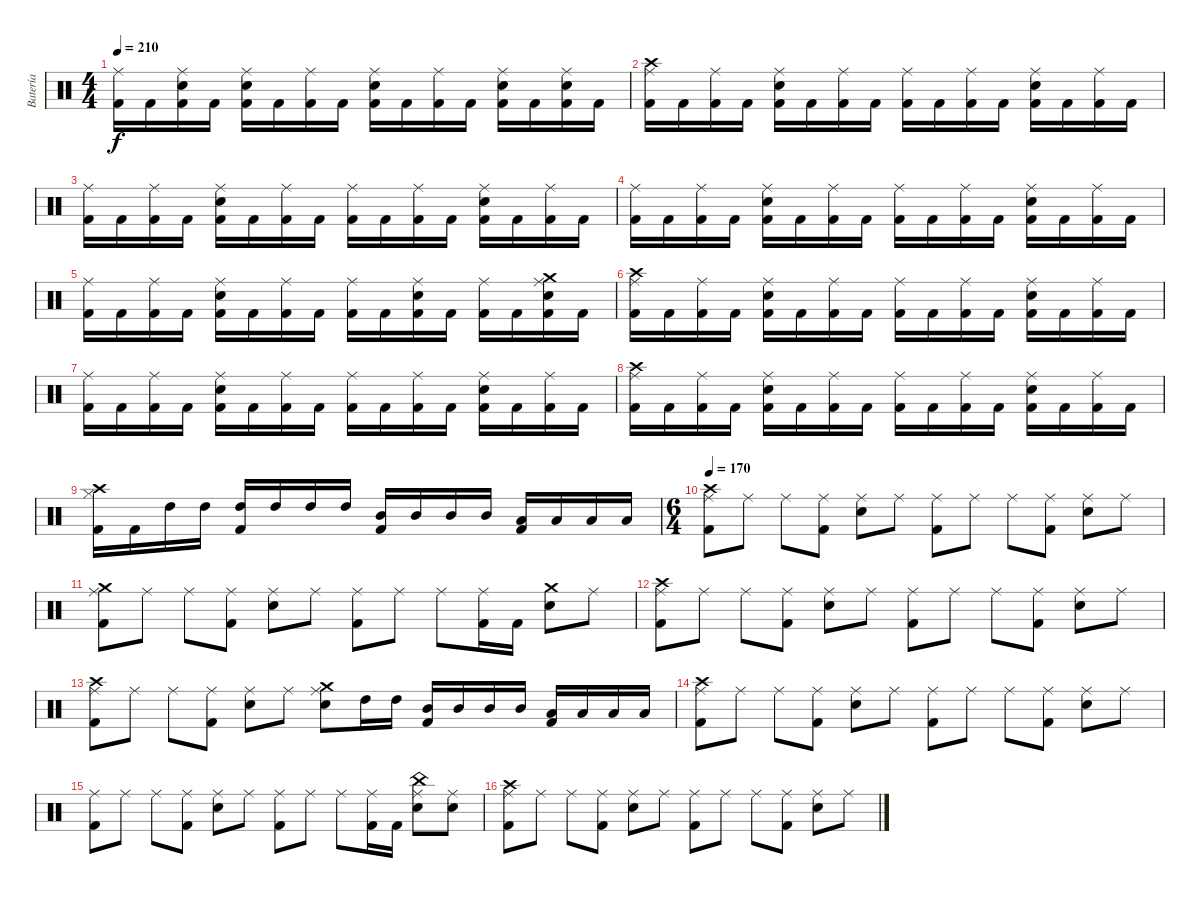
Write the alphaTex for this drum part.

\track ("Batería" "Batería") {instrument percussion}
\staff {score}
\articulation defaults
\ts (4 4)
\tempo 210
\clef neutral
\ks c
("Ride (middle)" "Kick (hit) 2").16{dy f} "Kick (hit) 2".16 ("Electric Snare (hit)" "Ride (middle)" "Kick (hit) 2").16 "Kick (hit) 2".16 ("Electric Snare (hit)" "Ride (middle)" "Kick (hit) 2").16 "Kick (hit) 2".16 ("Ride (middle)" "Kick (hit) 2").16 "Kick (hit) 2".16 ("Electric Snare (hit)" "Ride (middle)" "Kick (hit) 2").16 "Kick (hit) 2".16 ("Ride (middle)" "Kick (hit) 2").16 "Kick (hit) 2".16 ("Electric Snare (hit)" "Ride (middle)" "Kick (hit) 2").16 "Kick (hit) 2".16 ("Electric Snare (hit)" "Ride (middle)" "Kick (hit) 2").16 "Kick (hit) 2".16 |
("Crash high (hit)" "Ride (middle)" "Kick (hit) 2").16 "Kick (hit) 2".16 ("Ride (middle)" "Kick (hit) 2").16 "Kick (hit) 2".16 ("Electric Snare (hit)" "Ride (middle)" "Kick (hit) 2").16 "Kick (hit) 2".16 ("Ride (middle)" "Kick (hit) 2").16 "Kick (hit) 2".16 ("Ride (middle)" "Kick (hit) 2").16 "Kick (hit) 2".16 ("Ride (middle)" "Kick (hit) 2").16 "Kick (hit) 2".16 ("Electric Snare (hit)" "Ride (middle)" "Kick (hit) 2").16 "Kick (hit) 2".16 ("Ride (middle)" "Kick (hit) 2").16 "Kick (hit) 2".16 |
("Ride (middle)" "Kick (hit) 2").16 "Kick (hit) 2".16 ("Ride (middle)" "Kick (hit) 2").16 "Kick (hit) 2".16 ("Electric Snare (hit)" "Ride (middle)" "Kick (hit) 2").16 "Kick (hit) 2".16 ("Ride (middle)" "Kick (hit) 2").16 "Kick (hit) 2".16 ("Ride (middle)" "Kick (hit) 2").16 "Kick (hit) 2".16 ("Ride (middle)" "Kick (hit) 2").16 "Kick (hit) 2".16 ("Electric Snare (hit)" "Ride (middle)" "Kick (hit) 2").16 "Kick (hit) 2".16 ("Ride (middle)" "Kick (hit) 2").16 "Kick (hit) 2".16 |
("Ride (middle)" "Kick (hit) 2").16 "Kick (hit) 2".16 ("Ride (middle)" "Kick (hit) 2").16 "Kick (hit) 2".16 ("Electric Snare (hit)" "Ride (middle)" "Kick (hit) 2").16 "Kick (hit) 2".16 ("Ride (middle)" "Kick (hit) 2").16 "Kick (hit) 2".16 ("Ride (middle)" "Kick (hit) 2").16 "Kick (hit) 2".16 ("Ride (middle)" "Kick (hit) 2").16 "Kick (hit) 2".16 ("Electric Snare (hit)" "Ride (middle)" "Kick (hit) 2").16 "Kick (hit) 2".16 ("Ride (middle)" "Kick (hit) 2").16 "Kick (hit) 2".16 |
("Ride (middle)" "Kick (hit) 2").16 "Kick (hit) 2".16 ("Ride (middle)" "Kick (hit) 2").16 "Kick (hit) 2".16 ("Electric Snare (hit)" "Ride (middle)" "Kick (hit) 2").16 "Kick (hit) 2".16 ("Ride (middle)" "Kick (hit) 2").16 "Kick (hit) 2".16 ("Ride (middle)" "Kick (hit) 2").16 "Kick (hit) 2".16 ("Electric Snare (hit)" "Ride (middle)" "Kick (hit) 2").16 "Kick (hit) 2".16 ("Ride (middle)" "Kick (hit) 2").16 "Kick (hit) 2".16 ("Crash medium (hit)" "Electric Snare (hit)" "Ride (middle)" "Kick (hit) 2").16 "Kick (hit) 2".16 |
("Crash high (hit)" "Ride (middle)" "Kick (hit) 2").16 "Kick (hit) 2".16 ("Ride (middle)" "Kick (hit) 2").16 "Kick (hit) 2".16 ("Electric Snare (hit)" "Ride (middle)" "Kick (hit) 2").16 "Kick (hit) 2".16 ("Ride (middle)" "Kick (hit) 2").16 "Kick (hit) 2".16 ("Ride (middle)" "Kick (hit) 2").16 "Kick (hit) 2".16 ("Ride (middle)" "Kick (hit) 2").16 "Kick (hit) 2".16 ("Electric Snare (hit)" "Ride (middle)" "Kick (hit) 2").16 "Kick (hit) 2".16 ("Ride (middle)" "Kick (hit) 2").16 "Kick (hit) 2".16 |
("Ride (middle)" "Kick (hit) 2").16 "Kick (hit) 2".16 ("Ride (middle)" "Kick (hit) 2").16 "Kick (hit) 2".16 ("Electric Snare (hit)" "Ride (middle)" "Kick (hit) 2").16 "Kick (hit) 2".16 ("Ride (middle)" "Kick (hit) 2").16 "Kick (hit) 2".16 ("Ride (middle)" "Kick (hit) 2").16 "Kick (hit) 2".16 ("Ride (middle)" "Kick (hit) 2").16 "Kick (hit) 2".16 ("Electric Snare (hit)" "Ride (middle)" "Kick (hit) 2").16 "Kick (hit) 2".16 ("Ride (middle)" "Kick (hit) 2").16 "Kick (hit) 2".16 |
("Crash high (hit)" "Ride (middle)" "Kick (hit) 2").16 "Kick (hit) 2".16 ("Ride (middle)" "Kick (hit) 2").16 "Kick (hit) 2".16 ("Electric Snare (hit)" "Ride (middle)" "Kick (hit) 2").16 "Kick (hit) 2".16 ("Ride (middle)" "Kick (hit) 2").16 "Kick (hit) 2".16 ("Ride (middle)" "Kick (hit) 2").16 "Kick (hit) 2".16 ("Ride (middle)" "Kick (hit) 2").16 "Kick (hit) 2".16 ("Electric Snare (hit)" "Ride (middle)" "Kick (hit) 2").16 "Kick (hit) 2".16 ("Ride (middle)" "Kick (hit) 2").16 "Kick (hit) 2".16 |
("Crash high (hit)" "Hi-Hat (closed)" "Kick (hit) 2").16 "Kick (hit) 2".16 "High Tom (hit)".16 "High Tom (hit)".16 ("Kick (hit) 2" "High Tom (hit)").16 "High Tom (hit)".16 "High Tom (hit)".16 "High Tom (hit)".16 ("Kick (hit) 2" "Mid Tom (hit)").16 "Mid Tom (hit)".16 "Mid Tom (hit)".16 "Mid Tom (hit)".16 ("Kick (hit) 2" "Low Tom (hit)").16 "Low Tom (hit)".16 "Low Tom (hit)".16 "Low Tom (hit)".16 |
\ts (6 4)
\tempo 170
("Crash high (hit)" "Kick (hit) 2" "Ride (middle)").8 "Ride (middle)".8 "Ride (middle)".8 ("Kick (hit) 2" "Ride (middle)").8 ("Electric Snare (hit)" "Ride (middle)").8 "Ride (middle)".8 ("Kick (hit) 2" "Ride (middle)").8 "Ride (middle)".8 "Ride (middle)".8 ("Kick (hit) 2" "Ride (middle)").8 ("Electric Snare (hit)" "Ride (middle)").8 "Ride (middle)".8 |
("Crash medium (hit)" "Kick (hit) 2" "Ride (middle)").8 "Ride (middle)".8 "Ride (middle)".8 ("Kick (hit) 2" "Ride (middle)").8 ("Electric Snare (hit)" "Ride (middle)").8 "Ride (middle)".8 ("Kick (hit) 2" "Ride (middle)").8 "Ride (middle)".8 "Ride (middle)".8 ("Kick (hit) 2" "Ride (middle)").16 "Kick (hit) 2".16 ("Crash medium (hit)" "Electric Snare (hit)").8 "Ride (middle)".8 |
("Crash high (hit)" "Kick (hit) 2" "Ride (middle)").8 "Ride (middle)".8 "Ride (middle)".8 ("Kick (hit) 2" "Ride (middle)").8 ("Electric Snare (hit)" "Ride (middle)").8 "Ride (middle)".8 ("Kick (hit) 2" "Ride (middle)").8 "Ride (middle)".8 "Ride (middle)".8 ("Kick (hit) 2" "Ride (middle)").8 ("Electric Snare (hit)" "Ride (middle)").8 "Ride (middle)".8 |
("Crash high (hit)" "Kick (hit) 2" "Ride (middle)").8 "Ride (middle)".8 "Ride (middle)".8 ("Kick (hit) 2" "Ride (middle)").8 ("Electric Snare (hit)" "Ride (middle)").8 "Ride (middle)".8 ("Crash medium (hit)" "Electric Snare (hit)" "Ride (middle)").8 "High Tom (hit)".16 "High Tom (hit)".16 ("Kick (hit) 2" "Mid Tom (hit)").16 "Mid Tom (hit)".16 "Mid Tom (hit)".16 "Mid Tom (hit)".16 ("Kick (hit) 2" "Low Tom (hit)").16 "Low Tom (hit)".16 "Low Tom (hit)".16 "Low Tom (hit)".16 |
("Crash high (hit)" "Kick (hit) 2" "Ride (middle)").8 "Ride (middle)".8 "Ride (middle)".8 ("Kick (hit) 2" "Ride (middle)").8 ("Electric Snare (hit)" "Ride (middle)").8 "Ride (middle)".8 ("Kick (hit) 2" "Ride (middle)").8 "Ride (middle)".8 "Ride (middle)".8 ("Kick (hit) 2" "Ride (middle)").8 ("Electric Snare (hit)" "Ride (middle)").8 "Ride (middle)".8 |
("Kick (hit) 2" "Ride (middle)").8 "Ride (middle)".8 "Ride (middle)".8 ("Kick (hit) 2" "Ride (middle)").8 ("Electric Snare (hit)" "Ride (middle)").8 "Ride (middle)".8 ("Kick (hit) 2" "Ride (middle)").8 "Ride (middle)".8 "Ride (middle)".8 ("Kick (hit) 2" "Ride (middle)").16 "Kick (hit) 2".16 ("China (hit)" "Electric Snare (hit)" "Ride (middle)").8 ("Electric Snare (hit)" "Ride (middle)").8 |
("Crash high (hit)" "Kick (hit) 2" "Ride (middle)").8 "Ride (middle)".8 "Ride (middle)".8 ("Kick (hit) 2" "Ride (middle)").8 ("Electric Snare (hit)" "Ride (middle)").8 "Ride (middle)".8 ("Kick (hit) 2" "Ride (middle)").8 "Ride (middle)".8 "Ride (middle)".8 ("Kick (hit) 2" "Ride (middle)").8 ("Electric Snare (hit)" "Ride (middle)").8 "Ride (middle)".8
